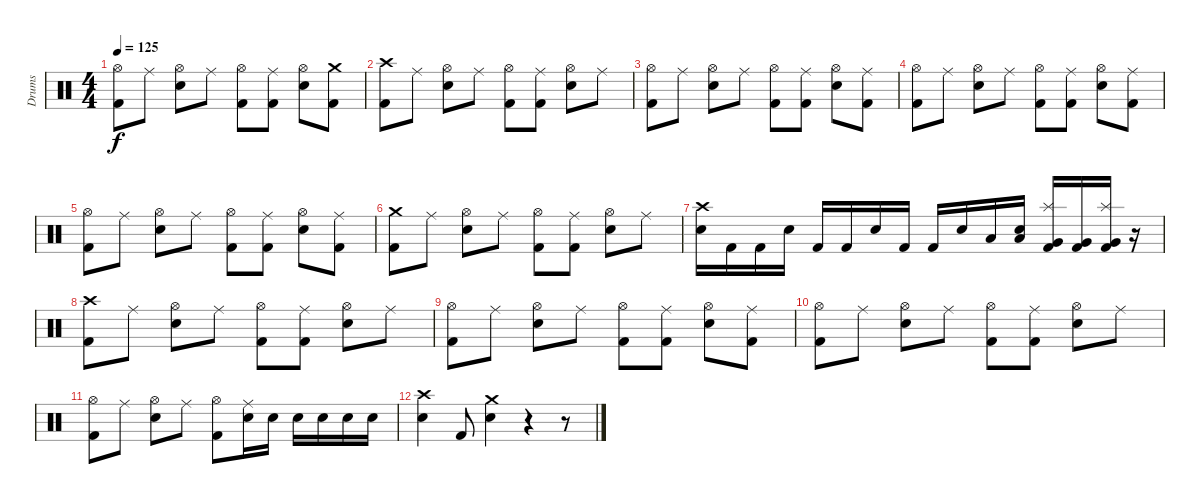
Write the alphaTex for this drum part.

\track ("Drums" "Drums") {instrument percussion}
\staff {score}
\articulation defaults
\ts (4 4)
\tempo 125
\clef neutral
\ks c
("Hi-Hat (open)" "Kick (hit) 2").8{dy f} "Ride (middle)".8 ("Hi-Hat (open)" "Electric Snare (hit)").8 "Ride (middle)".8 ("Hi-Hat (open)" "Kick (hit) 2").8 ("Ride (middle)" "Kick (hit) 2").8 ("Hi-Hat (open)" "Electric Snare (hit)").8 ("Crash medium (hit)" "Kick (hit) 2").8 |
("Crash high (hit)" "Kick (hit) 2").8 "Ride (middle)".8 ("Hi-Hat (open)" "Electric Snare (hit)").8 "Ride (middle)".8 ("Hi-Hat (open)" "Kick (hit) 2").8 ("Ride (middle)" "Kick (hit) 2").8 ("Hi-Hat (open)" "Electric Snare (hit)").8 "Ride (middle)".8 |
("Hi-Hat (open)" "Kick (hit) 2").8 "Ride (middle)".8 ("Hi-Hat (open)" "Electric Snare (hit)").8 "Ride (middle)".8 ("Hi-Hat (open)" "Kick (hit) 2").8 ("Ride (middle)" "Kick (hit) 2").8 ("Hi-Hat (open)" "Electric Snare (hit)").8 ("Ride (middle)" "Kick (hit) 2").8 |
("Hi-Hat (open)" "Kick (hit) 2").8 "Ride (middle)".8 ("Hi-Hat (open)" "Electric Snare (hit)").8 "Ride (middle)".8 ("Hi-Hat (open)" "Kick (hit) 2").8 ("Ride (middle)" "Kick (hit) 2").8 ("Hi-Hat (open)" "Electric Snare (hit)").8 ("Ride (middle)" "Kick (hit) 2").8 |
("Hi-Hat (open)" "Kick (hit) 2").8 "Ride (middle)".8 ("Hi-Hat (open)" "Electric Snare (hit)").8 "Ride (middle)".8 ("Hi-Hat (open)" "Kick (hit) 2").8 ("Ride (middle)" "Kick (hit) 2").8 ("Hi-Hat (open)" "Electric Snare (hit)").8 ("Ride (middle)" "Kick (hit) 2").8 |
("Crash medium (hit)" "Kick (hit) 2").8 "Ride (middle)".8 ("Hi-Hat (open)" "Electric Snare (hit)").8 "Ride (middle)".8 ("Hi-Hat (open)" "Kick (hit) 2").8 ("Ride (middle)" "Kick (hit) 2").8 ("Hi-Hat (open)" "Electric Snare (hit)").8 "Ride (middle)".8 |
("Crash high (hit)" "Electric Snare (hit)").16 "Kick (hit) 2".16 "Kick (hit) 2".16 "Electric Snare (hit)".16 "Kick (hit) 2".16 "Kick (hit) 2".16 "Electric Snare (hit)".16 "Kick (hit) 2".16 "Kick (hit) 2".16 "Electric Snare (hit)".16 "Low Tom (hit)".16 ("Low Tom (hit)" "Electric Snare (hit)").16 ("Splash (hit)" "Very Low Tom (hit)" "Kick (hit) 2").16 ("Very Low Tom (hit)" "Kick (hit) 2").16 ("Splash (hit)" "Very Low Tom (hit)" "Kick (hit) 2").16 r.16 |
("Crash high (hit)" "Kick (hit) 2").8 "Ride (middle)".8 ("Hi-Hat (open)" "Electric Snare (hit)").8 "Ride (middle)".8 ("Hi-Hat (open)" "Kick (hit) 2").8 ("Ride (middle)" "Kick (hit) 2").8 ("Hi-Hat (open)" "Electric Snare (hit)").8 "Ride (middle)".8 |
("Hi-Hat (open)" "Kick (hit) 2").8 "Ride (middle)".8 ("Hi-Hat (open)" "Electric Snare (hit)").8 "Ride (middle)".8 ("Hi-Hat (open)" "Kick (hit) 2").8 ("Ride (middle)" "Kick (hit) 2").8 ("Hi-Hat (open)" "Electric Snare (hit)").8 ("Ride (middle)" "Kick (hit) 2").8 |
("Hi-Hat (open)" "Kick (hit) 2").8 "Ride (middle)".8 ("Hi-Hat (open)" "Electric Snare (hit)").8 "Ride (middle)".8 ("Hi-Hat (open)" "Kick (hit) 2").8 ("Ride (middle)" "Kick (hit) 2").8 ("Hi-Hat (open)" "Electric Snare (hit)").8 "Ride (middle)".8 |
("Hi-Hat (open)" "Kick (hit) 2").8 "Ride (middle)".8 ("Hi-Hat (open)" "Electric Snare (hit)").8 "Ride (middle)".8 ("Hi-Hat (open)" "Kick (hit) 2").8 ("Ride (middle)" "Electric Snare (hit)").16 "Electric Snare (hit)".16 "Electric Snare (hit)".16 "Electric Snare (hit)".16 "Electric Snare (hit)".16 "Electric Snare (hit)".16 |
("Crash high (hit)" "Electric Snare (hit)").4 "Kick (hit) 2".8 ("Crash medium (hit)" "Electric Snare (hit)").4 r.4 r.8
